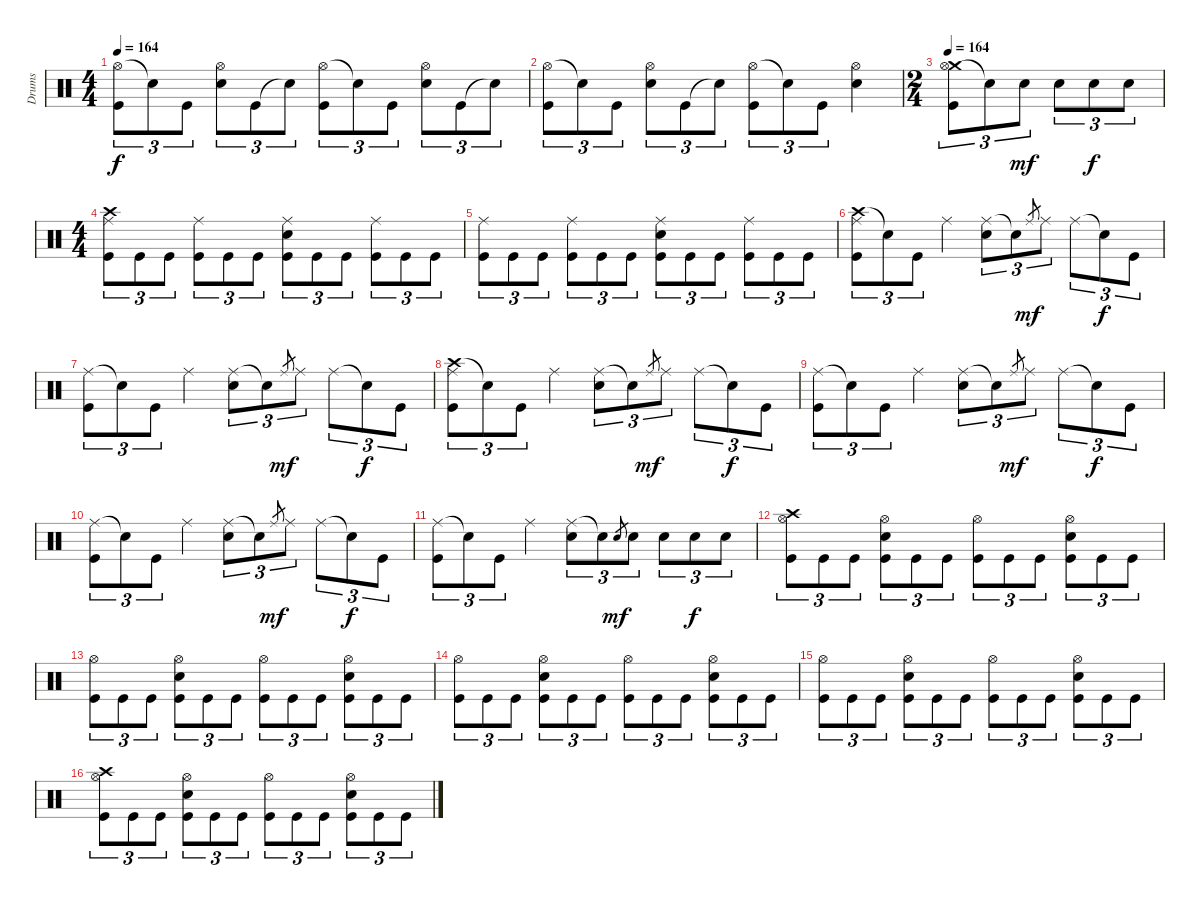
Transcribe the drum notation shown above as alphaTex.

\track ("Drums" "Drums") {instrument percussion}
\staff {score}
\articulation defaults
\ts (4 4)
\tempo 164
\clef neutral
\ks c
("Hi-Hat (open)" "Kick (hit)").8{tu (3 2) dy f} "Snare (hit)"{t}.8{tu (3 2)} "Kick (hit)".8{tu (3 2)} ("Hi-Hat (open)" "Electric Snare (hit)").8{tu (3 2)} "Kick (hit)".8{tu (3 2)} "Snare (hit)"{t}.8{tu (3 2)} ("Hi-Hat (open)" "Kick (hit)").8{tu (3 2)} "Snare (hit)"{t}.8{tu (3 2)} "Kick (hit)".8{tu (3 2)} ("Hi-Hat (open)" "Electric Snare (hit)").8{tu (3 2)} "Kick (hit)".8{tu (3 2)} "Snare (hit)"{t}.8{tu (3 2)} |
("Hi-Hat (open)" "Kick (hit)").8{tu (3 2)} "Snare (hit)"{t}.8{tu (3 2)} "Kick (hit)".8{tu (3 2)} ("Hi-Hat (open)" "Electric Snare (hit)").8{tu (3 2)} "Kick (hit)".8{tu (3 2)} "Snare (hit)"{t}.8{tu (3 2)} ("Hi-Hat (open)" "Kick (hit)").8{tu (3 2)} "Snare (hit)"{t}.8{tu (3 2)} "Kick (hit)".8{tu (3 2)} ("Hi-Hat (open)" "Electric Snare (hit)").4 |
\ts (2 4)
\tempo 164
("Crash medium (hit)" "Hi-Hat (open)" "Kick (hit)").8{tu (3 2)} "Snare (hit)"{t}.8{tu (3 2)} "Electric Snare (hit)".8{tu (3 2) dy mf} "Electric Snare (hit)".8{tu (3 2)} "Electric Snare (hit)".8{tu (3 2) dy f} "Electric Snare (hit)".8{tu (3 2)} |
\ts (4 4)
("Crash high (hit)" "Ride (middle)" "Kick (hit)").8{tu (3 2)} "Kick (hit)".8{tu (3 2)} "Kick (hit)".8{tu (3 2)} ("Ride (middle)" "Kick (hit)").8{tu (3 2)} "Kick (hit)".8{tu (3 2)} "Kick (hit)".8{tu (3 2)} ("Ride (middle)" "Electric Snare (hit)" "Kick (hit)").8{tu (3 2)} "Kick (hit)".8{tu (3 2)} "Kick (hit)".8{tu (3 2)} ("Ride (middle)" "Kick (hit)").8{tu (3 2)} "Kick (hit)".8{tu (3 2)} "Kick (hit)".8{tu (3 2)} |
("Ride (middle)" "Kick (hit)").8{tu (3 2)} "Kick (hit)".8{tu (3 2)} "Kick (hit)".8{tu (3 2)} ("Ride (middle)" "Kick (hit)").8{tu (3 2)} "Kick (hit)".8{tu (3 2)} "Kick (hit)".8{tu (3 2)} ("Ride (middle)" "Electric Snare (hit)" "Kick (hit)").8{tu (3 2)} "Kick (hit)".8{tu (3 2)} "Kick (hit)".8{tu (3 2)} ("Ride (middle)" "Kick (hit)").8{tu (3 2)} "Kick (hit)".8{tu (3 2)} "Kick (hit)".8{tu (3 2)} |
("Crash high (hit)" "Ride (middle)" "Kick (hit)").8{tu (3 2)} "Snare (hit)"{t}.8{tu (3 2)} "Kick (hit)".8{tu (3 2)} "Ride (middle)".4 ("Ride (middle)" "Electric Snare (hit)").8{tu (3 2)} "Snare (hit)"{t}.8{tu (3 2)} "Ride (middle)".8{gr dy mf} "Ride (middle)".8{tu (3 2)} "Ride (middle)".8{tu (3 2)} "Snare (hit)"{t}.8{tu (3 2) dy f} "Kick (hit)".8{tu (3 2)} |
("Ride (middle)" "Kick (hit)").8{tu (3 2)} "Snare (hit)"{t}.8{tu (3 2)} "Kick (hit)".8{tu (3 2)} "Ride (middle)".4 ("Ride (middle)" "Electric Snare (hit)").8{tu (3 2)} "Snare (hit)"{t}.8{tu (3 2)} "Ride (middle)".8{gr dy mf} "Ride (middle)".8{tu (3 2)} "Ride (middle)".8{tu (3 2)} "Snare (hit)"{t}.8{tu (3 2) dy f} "Kick (hit)".8{tu (3 2)} |
("Crash high (hit)" "Ride (middle)" "Kick (hit)").8{tu (3 2)} "Snare (hit)"{t}.8{tu (3 2)} "Kick (hit)".8{tu (3 2)} "Ride (middle)".4 ("Ride (middle)" "Electric Snare (hit)").8{tu (3 2)} "Snare (hit)"{t}.8{tu (3 2)} "Ride (middle)".8{gr dy mf} "Ride (middle)".8{tu (3 2)} "Ride (middle)".8{tu (3 2)} "Snare (hit)"{t}.8{tu (3 2) dy f} "Kick (hit)".8{tu (3 2)} |
("Ride (middle)" "Kick (hit)").8{tu (3 2)} "Snare (hit)"{t}.8{tu (3 2)} "Kick (hit)".8{tu (3 2)} "Ride (middle)".4 ("Ride (middle)" "Electric Snare (hit)").8{tu (3 2)} "Snare (hit)"{t}.8{tu (3 2)} "Ride (middle)".8{gr dy mf} "Ride (middle)".8{tu (3 2)} "Ride (middle)".8{tu (3 2)} "Snare (hit)"{t}.8{tu (3 2) dy f} "Kick (hit)".8{tu (3 2)} |
("Ride (middle)" "Kick (hit)").8{tu (3 2)} "Snare (hit)"{t}.8{tu (3 2)} "Kick (hit)".8{tu (3 2)} "Ride (middle)".4 ("Ride (middle)" "Electric Snare (hit)").8{tu (3 2)} "Snare (hit)"{t}.8{tu (3 2)} "Ride (middle)".8{gr dy mf} "Ride (middle)".8{tu (3 2)} "Ride (middle)".8{tu (3 2)} "Snare (hit)"{t}.8{tu (3 2) dy f} "Kick (hit)".8{tu (3 2)} |
("Ride (middle)" "Kick (hit)").8{tu (3 2)} "Snare (hit)"{t}.8{tu (3 2)} "Kick (hit)".8{tu (3 2)} "Ride (middle)".4 ("Ride (middle)" "Electric Snare (hit)").8{tu (3 2)} "Snare (hit)"{t}.8{tu (3 2)} "Electric Snare (hit)".8{gr dy mf} "Electric Snare (hit)".8{tu (3 2)} "Electric Snare (hit)".8{tu (3 2)} "Electric Snare (hit)".8{tu (3 2) dy f} "Electric Snare (hit)".8{tu (3 2)} |
("Crash high (hit)" "Hi-Hat (open)" "Kick (hit)").8{tu (3 2)} "Kick (hit)".8{tu (3 2)} "Kick (hit)".8{tu (3 2)} ("Hi-Hat (open)" "Electric Snare (hit)" "Kick (hit)").8{tu (3 2)} "Kick (hit)".8{tu (3 2)} "Kick (hit)".8{tu (3 2)} ("Hi-Hat (open)" "Kick (hit)").8{tu (3 2)} "Kick (hit)".8{tu (3 2)} "Kick (hit)".8{tu (3 2)} ("Hi-Hat (open)" "Electric Snare (hit)" "Kick (hit)").8{tu (3 2)} "Kick (hit)".8{tu (3 2)} "Kick (hit)".8{tu (3 2)} |
("Hi-Hat (open)" "Kick (hit)").8{tu (3 2)} "Kick (hit)".8{tu (3 2)} "Kick (hit)".8{tu (3 2)} ("Hi-Hat (open)" "Electric Snare (hit)" "Kick (hit)").8{tu (3 2)} "Kick (hit)".8{tu (3 2)} "Kick (hit)".8{tu (3 2)} ("Hi-Hat (open)" "Kick (hit)").8{tu (3 2)} "Kick (hit)".8{tu (3 2)} "Kick (hit)".8{tu (3 2)} ("Hi-Hat (open)" "Electric Snare (hit)" "Kick (hit)").8{tu (3 2)} "Kick (hit)".8{tu (3 2)} "Kick (hit)".8{tu (3 2)} |
("Hi-Hat (open)" "Kick (hit)").8{tu (3 2)} "Kick (hit)".8{tu (3 2)} "Kick (hit)".8{tu (3 2)} ("Hi-Hat (open)" "Electric Snare (hit)" "Kick (hit)").8{tu (3 2)} "Kick (hit)".8{tu (3 2)} "Kick (hit)".8{tu (3 2)} ("Hi-Hat (open)" "Kick (hit)").8{tu (3 2)} "Kick (hit)".8{tu (3 2)} "Kick (hit)".8{tu (3 2)} ("Hi-Hat (open)" "Electric Snare (hit)" "Kick (hit)").8{tu (3 2)} "Kick (hit)".8{tu (3 2)} "Kick (hit)".8{tu (3 2)} |
("Hi-Hat (open)" "Kick (hit)").8{tu (3 2)} "Kick (hit)".8{tu (3 2)} "Kick (hit)".8{tu (3 2)} ("Hi-Hat (open)" "Electric Snare (hit)" "Kick (hit)").8{tu (3 2)} "Kick (hit)".8{tu (3 2)} "Kick (hit)".8{tu (3 2)} ("Hi-Hat (open)" "Kick (hit)").8{tu (3 2)} "Kick (hit)".8{tu (3 2)} "Kick (hit)".8{tu (3 2)} ("Hi-Hat (open)" "Electric Snare (hit)" "Kick (hit)").8{tu (3 2)} "Kick (hit)".8{tu (3 2)} "Kick (hit)".8{tu (3 2)} |
("Crash high (hit)" "Hi-Hat (open)" "Kick (hit)").8{tu (3 2)} "Kick (hit)".8{tu (3 2)} "Kick (hit)".8{tu (3 2)} ("Hi-Hat (open)" "Electric Snare (hit)" "Kick (hit)").8{tu (3 2)} "Kick (hit)".8{tu (3 2)} "Kick (hit)".8{tu (3 2)} ("Hi-Hat (open)" "Kick (hit)").8{tu (3 2)} "Kick (hit)".8{tu (3 2)} "Kick (hit)".8{tu (3 2)} ("Hi-Hat (open)" "Electric Snare (hit)" "Kick (hit)").8{tu (3 2)} "Kick (hit)".8{tu (3 2)} "Kick (hit)".8{tu (3 2)}
